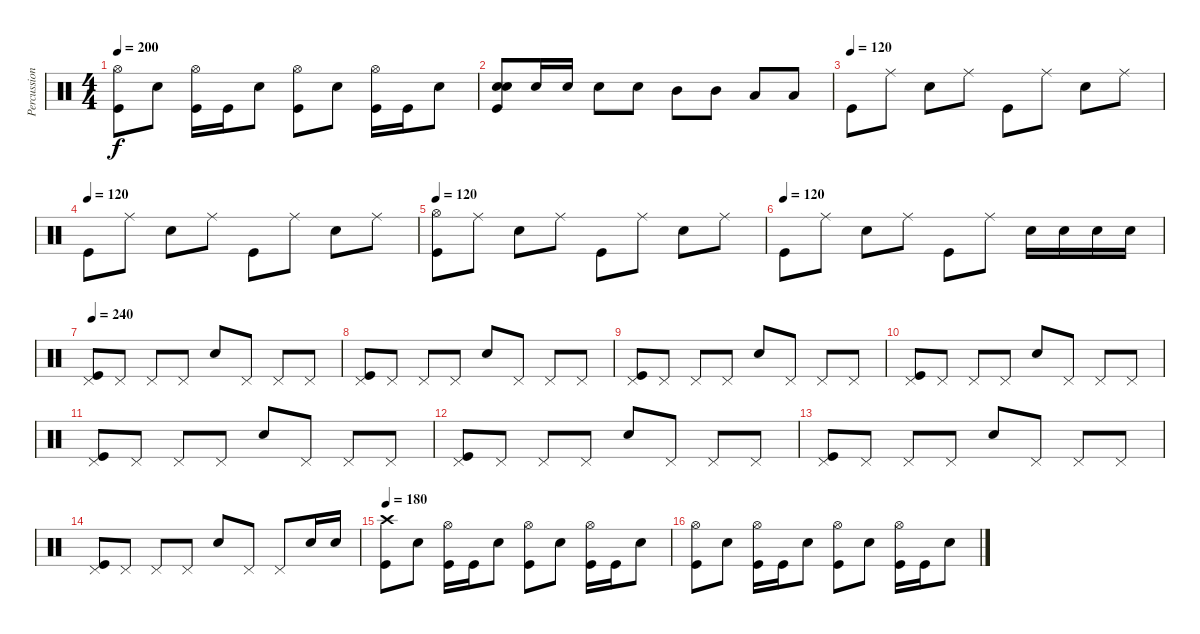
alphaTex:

\track ("Percussion" "Percussion") {instrument percussion}
\staff {score}
\articulation defaults
\ts (4 4)
\tempo 200
\clef neutral
\ks c
("Hi-Hat (open)" "Kick (hit)").8{dy f} "Snare (hit) 2".8 ("Hi-Hat (open)" "Kick (hit)").16 "Kick (hit)".16 "Snare (hit) 2".8 ("Hi-Hat (open)" "Kick (hit)").8 "Snare (hit) 2".8 ("Hi-Hat (open)" "Kick (hit)").16 "Kick (hit)".16 "Snare (hit) 2".8 |
("Snare (hit) 2" "Snare (hit) 2" "Kick (hit)").8 "Snare (hit) 2".16 "Snare (hit) 2".16 "Snare (hit) 2".8 "Snare (hit) 2".8 "Mid Tom (hit)".8 "Mid Tom (hit)".8 "Low Tom (hit)".8 "Low Tom (hit)".8 |
\tempo (120)
"Kick (hit)".8 "Ride (middle)".8 "Snare (hit) 2".8 "Ride (middle)".8 "Kick (hit)".8 "Ride (middle)".8 "Snare (hit) 2".8 "Ride (middle)".8 |
\tempo (120)
"Kick (hit)".8 "Ride (middle)".8 "Snare (hit) 2".8 "Ride (middle)".8 "Kick (hit)".8 "Ride (middle)".8 "Snare (hit) 2".8 "Ride (middle)".8 |
\tempo 120
("Hi-Hat (open)" "Kick (hit)").8 "Ride (middle)".8 "Snare (hit) 2".8 "Ride (middle)".8 "Kick (hit)".8 "Ride (middle)".8 "Snare (hit) 2".8 "Ride (middle)".8 |
\tempo (120)
"Kick (hit)".8 "Ride (middle)".8 "Snare (hit) 2".8 "Ride (middle)".8 "Kick (hit)".8 "Ride (middle)".8 "Snare (hit) 2".16 "Snare (hit) 2".16 "Snare (hit) 2".16 "Snare (hit) 2".16 |
\tempo 200
\tempo 240
("Pedal Hi-Hat (hit)" "Kick (hit)").8 "Pedal Hi-Hat (hit)".8 "Pedal Hi-Hat (hit)".8 "Pedal Hi-Hat (hit)".8 "Snare (hit) 2".8 "Pedal Hi-Hat (hit)".8 "Pedal Hi-Hat (hit)".8 "Pedal Hi-Hat (hit)".8 |
("Pedal Hi-Hat (hit)" "Kick (hit)").8 "Pedal Hi-Hat (hit)".8 "Pedal Hi-Hat (hit)".8 "Pedal Hi-Hat (hit)".8 "Snare (hit) 2".8 "Pedal Hi-Hat (hit)".8 "Pedal Hi-Hat (hit)".8 "Pedal Hi-Hat (hit)".8 |
("Pedal Hi-Hat (hit)" "Kick (hit)").8 "Pedal Hi-Hat (hit)".8 "Pedal Hi-Hat (hit)".8 "Pedal Hi-Hat (hit)".8 "Snare (hit) 2".8 "Pedal Hi-Hat (hit)".8 "Pedal Hi-Hat (hit)".8 "Pedal Hi-Hat (hit)".8 |
("Pedal Hi-Hat (hit)" "Kick (hit)").8 "Pedal Hi-Hat (hit)".8 "Pedal Hi-Hat (hit)".8 "Pedal Hi-Hat (hit)".8 "Snare (hit) 2".8 "Pedal Hi-Hat (hit)".8 "Pedal Hi-Hat (hit)".8 "Pedal Hi-Hat (hit)".8 |
("Pedal Hi-Hat (hit)" "Kick (hit)").8 "Pedal Hi-Hat (hit)".8 "Pedal Hi-Hat (hit)".8 "Pedal Hi-Hat (hit)".8 "Snare (hit) 2".8 "Pedal Hi-Hat (hit)".8 "Pedal Hi-Hat (hit)".8 "Pedal Hi-Hat (hit)".8 |
("Pedal Hi-Hat (hit)" "Kick (hit)").8 "Pedal Hi-Hat (hit)".8 "Pedal Hi-Hat (hit)".8 "Pedal Hi-Hat (hit)".8 "Snare (hit) 2".8 "Pedal Hi-Hat (hit)".8 "Pedal Hi-Hat (hit)".8 "Pedal Hi-Hat (hit)".8 |
("Pedal Hi-Hat (hit)" "Kick (hit)").8 "Pedal Hi-Hat (hit)".8 "Pedal Hi-Hat (hit)".8 "Pedal Hi-Hat (hit)".8 "Snare (hit) 2".8 "Pedal Hi-Hat (hit)".8 "Pedal Hi-Hat (hit)".8 "Pedal Hi-Hat (hit)".8 |
("Pedal Hi-Hat (hit)" "Kick (hit)").8 "Pedal Hi-Hat (hit)".8 "Pedal Hi-Hat (hit)".8 "Pedal Hi-Hat (hit)".8 "Snare (hit) 2".8 "Pedal Hi-Hat (hit)".8 "Pedal Hi-Hat (hit)".8 "Snare (hit) 2".16 "Snare (hit) 2".16 |
\tempo 180
("Crash high (hit)" "Kick (hit)").8 "Snare (hit) 2".8 ("Hi-Hat (open)" "Kick (hit)").16 "Kick (hit)".16 "Snare (hit) 2".8 ("Hi-Hat (open)" "Kick (hit)").8 "Snare (hit) 2".8 ("Hi-Hat (open)" "Kick (hit)").16 "Kick (hit)".16 "Snare (hit) 2".8 |
("Hi-Hat (open)" "Kick (hit)").8 "Snare (hit) 2".8 ("Hi-Hat (open)" "Kick (hit)").16 "Kick (hit)".16 "Snare (hit) 2".8 ("Hi-Hat (open)" "Kick (hit)").8 "Snare (hit) 2".8 ("Hi-Hat (open)" "Kick (hit)").16 "Kick (hit)".16 "Snare (hit) 2".8
